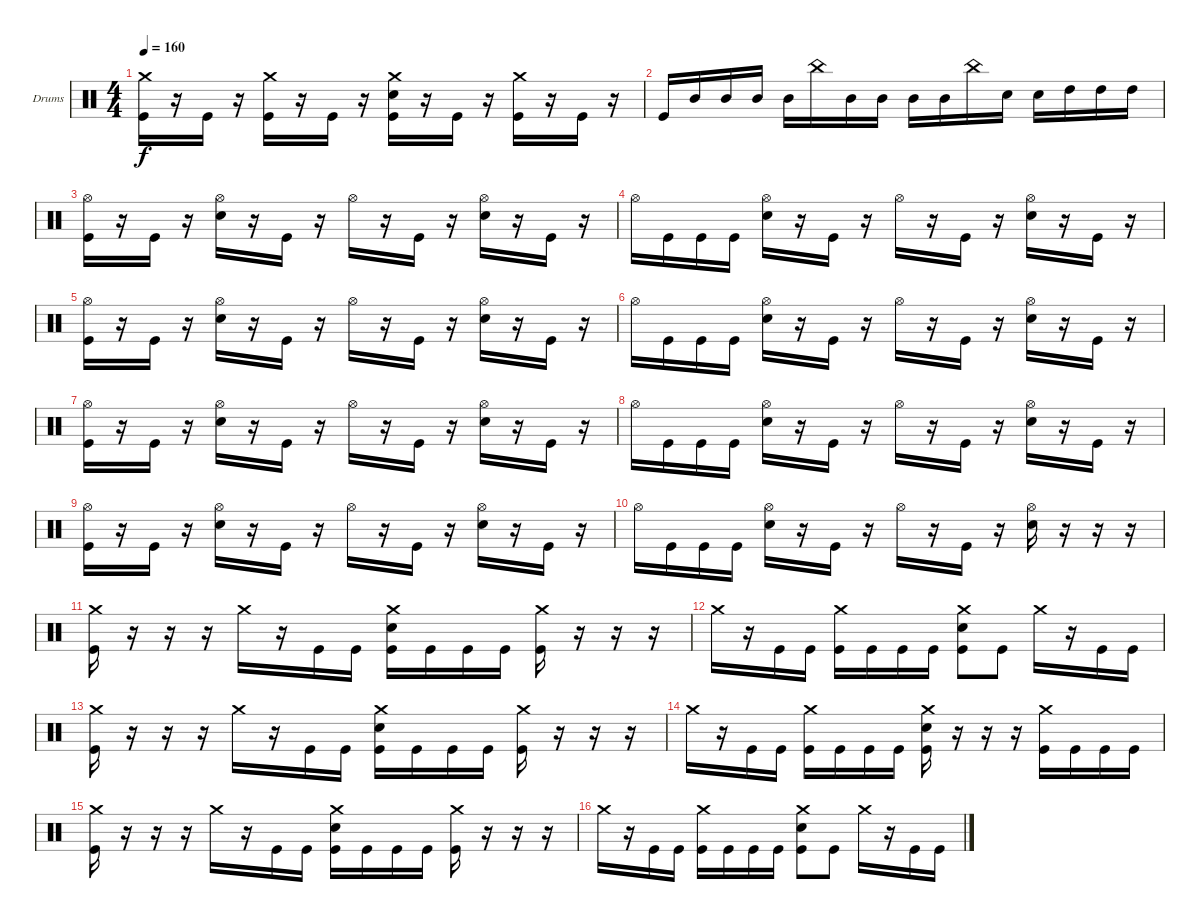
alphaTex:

\bracketExtendMode groupsimilarinstruments
\firstSystemTrackNameOrientation horizontal
\otherSystemsTrackNameOrientation horizontal
\track ("Drumkit" "Drums") {instrument percussion}
\staff {score}
\articulation defaults
\ts (4 4)
\tempo 160
\clef neutral
\ks c
("Crash medium (hit)" "Kick (hit)").16{dy f} r.16 "Kick (hit)".16 r.16 ("Crash medium (hit)" "Kick (hit)").16 r.16 "Kick (hit)".16 r.16 ("Crash medium (hit)" "Snare (hit) 2" "Kick (hit)").16 r.16 "Kick (hit)".16 r.16 ("Crash medium (hit)" "Kick (hit)").16 r.16 "Kick (hit)".16 r.16 |
"Kick (hit)".16 "Mid Tom (hit)".16 "Mid Tom (hit)".16 "Mid Tom (hit)".16 "Mid Tom (hit)".16 "China (hit)".16 "Mid Tom (hit)".16 "Mid Tom (hit)".16 "Mid Tom (hit)".16 "Mid Tom (hit)".16 "China (hit)".16 "Snare (hit) 2".16 "Snare (hit) 2".16 "High Tom (hit)".16 "High Tom (hit)".16 "High Tom (hit)".16 |
("Hi-Hat (open)" "Kick (hit)").16 r.16 "Kick (hit)".16 r.16 ("Hi-Hat (open)" "Snare (hit) 2").16 r.16 "Kick (hit)".16 r.16 "Hi-Hat (open)".16 r.16 "Kick (hit)".16 r.16 ("Hi-Hat (open)" "Snare (hit) 2").16 r.16 "Kick (hit)".16 r.16 |
"Hi-Hat (open)".16 "Kick (hit)".16 "Kick (hit)".16 "Kick (hit)".16 ("Hi-Hat (open)" "Snare (hit) 2").16 r.16 "Kick (hit)".16 r.16 "Hi-Hat (open)".16 r.16 "Kick (hit)".16 r.16 ("Hi-Hat (open)" "Snare (hit) 2").16 r.16 "Kick (hit)".16 r.16 |
("Hi-Hat (open)" "Kick (hit)").16 r.16 "Kick (hit)".16 r.16 ("Hi-Hat (open)" "Snare (hit) 2").16 r.16 "Kick (hit)".16 r.16 "Hi-Hat (open)".16 r.16 "Kick (hit)".16 r.16 ("Hi-Hat (open)" "Snare (hit) 2").16 r.16 "Kick (hit)".16 r.16 |
"Hi-Hat (open)".16 "Kick (hit)".16 "Kick (hit)".16 "Kick (hit)".16 ("Hi-Hat (open)" "Snare (hit) 2").16 r.16 "Kick (hit)".16 r.16 "Hi-Hat (open)".16 r.16 "Kick (hit)".16 r.16 ("Hi-Hat (open)" "Snare (hit) 2").16 r.16 "Kick (hit)".16 r.16 |
("Hi-Hat (open)" "Kick (hit)").16 r.16 "Kick (hit)".16 r.16 ("Hi-Hat (open)" "Snare (hit) 2").16 r.16 "Kick (hit)".16 r.16 "Hi-Hat (open)".16 r.16 "Kick (hit)".16 r.16 ("Hi-Hat (open)" "Snare (hit) 2").16 r.16 "Kick (hit)".16 r.16 |
"Hi-Hat (open)".16 "Kick (hit)".16 "Kick (hit)".16 "Kick (hit)".16 ("Hi-Hat (open)" "Snare (hit) 2").16 r.16 "Kick (hit)".16 r.16 "Hi-Hat (open)".16 r.16 "Kick (hit)".16 r.16 ("Hi-Hat (open)" "Snare (hit) 2").16 r.16 "Kick (hit)".16 r.16 |
("Hi-Hat (open)" "Kick (hit)").16 r.16 "Kick (hit)".16 r.16 ("Hi-Hat (open)" "Snare (hit) 2").16 r.16 "Kick (hit)".16 r.16 "Hi-Hat (open)".16 r.16 "Kick (hit)".16 r.16 ("Hi-Hat (open)" "Snare (hit) 2").16 r.16 "Kick (hit)".16 r.16 |
"Hi-Hat (open)".16 "Kick (hit)".16 "Kick (hit)".16 "Kick (hit)".16 ("Hi-Hat (open)" "Snare (hit) 2").16 r.16 "Kick (hit)".16 r.16 "Hi-Hat (open)".16 r.16 "Kick (hit)".16 r.16 ("Hi-Hat (open)" "Snare (hit) 2").16 r.16 r.16 r.16 |
("Crash medium (hit)" "Kick (hit)").16 r.16 r.16 r.16 "Crash medium (hit)".16 r.16 "Kick (hit)".16 "Kick (hit)".16 ("Crash medium (hit)" "Snare (hit) 2" "Kick (hit)").16 "Kick (hit)".16 "Kick (hit)".16 "Kick (hit)".16 ("Crash medium (hit)" "Kick (hit)").16 r.16 r.16 r.16 |
"Crash medium (hit)".16 r.16 "Kick (hit)".16 "Kick (hit)".16 ("Crash medium (hit)" "Kick (hit)").16 "Kick (hit)".16 "Kick (hit)".16 "Kick (hit)".16 ("Crash medium (hit)" "Snare (hit) 2" "Kick (hit)").8 "Kick (hit)".8 "Crash medium (hit)".16 r.16 "Kick (hit)".16 "Kick (hit)".16 |
("Crash medium (hit)" "Kick (hit)").16 r.16 r.16 r.16 "Crash medium (hit)".16 r.16 "Kick (hit)".16 "Kick (hit)".16 ("Crash medium (hit)" "Snare (hit) 2" "Kick (hit)").16 "Kick (hit)".16 "Kick (hit)".16 "Kick (hit)".16 ("Crash medium (hit)" "Kick (hit)").16 r.16 r.16 r.16 |
"Crash medium (hit)".16 r.16 "Kick (hit)".16 "Kick (hit)".16 ("Crash medium (hit)" "Kick (hit)").16 "Kick (hit)".16 "Kick (hit)".16 "Kick (hit)".16 ("Crash medium (hit)" "Snare (hit) 2" "Kick (hit)").16 r.16 r.16 r.16 ("Crash medium (hit)" "Kick (hit)").16 "Kick (hit)".16 "Kick (hit)".16 "Kick (hit)".16 |
("Crash medium (hit)" "Kick (hit)").16 r.16 r.16 r.16 "Crash medium (hit)".16 r.16 "Kick (hit)".16 "Kick (hit)".16 ("Crash medium (hit)" "Snare (hit) 2" "Kick (hit)").16 "Kick (hit)".16 "Kick (hit)".16 "Kick (hit)".16 ("Crash medium (hit)" "Kick (hit)").16 r.16 r.16 r.16 |
"Crash medium (hit)".16 r.16 "Kick (hit)".16 "Kick (hit)".16 ("Crash medium (hit)" "Kick (hit)").16 "Kick (hit)".16 "Kick (hit)".16 "Kick (hit)".16 ("Crash medium (hit)" "Snare (hit) 2" "Kick (hit)").8 "Kick (hit)".8 "Crash medium (hit)".16 r.16 "Kick (hit)".16 "Kick (hit)".16
